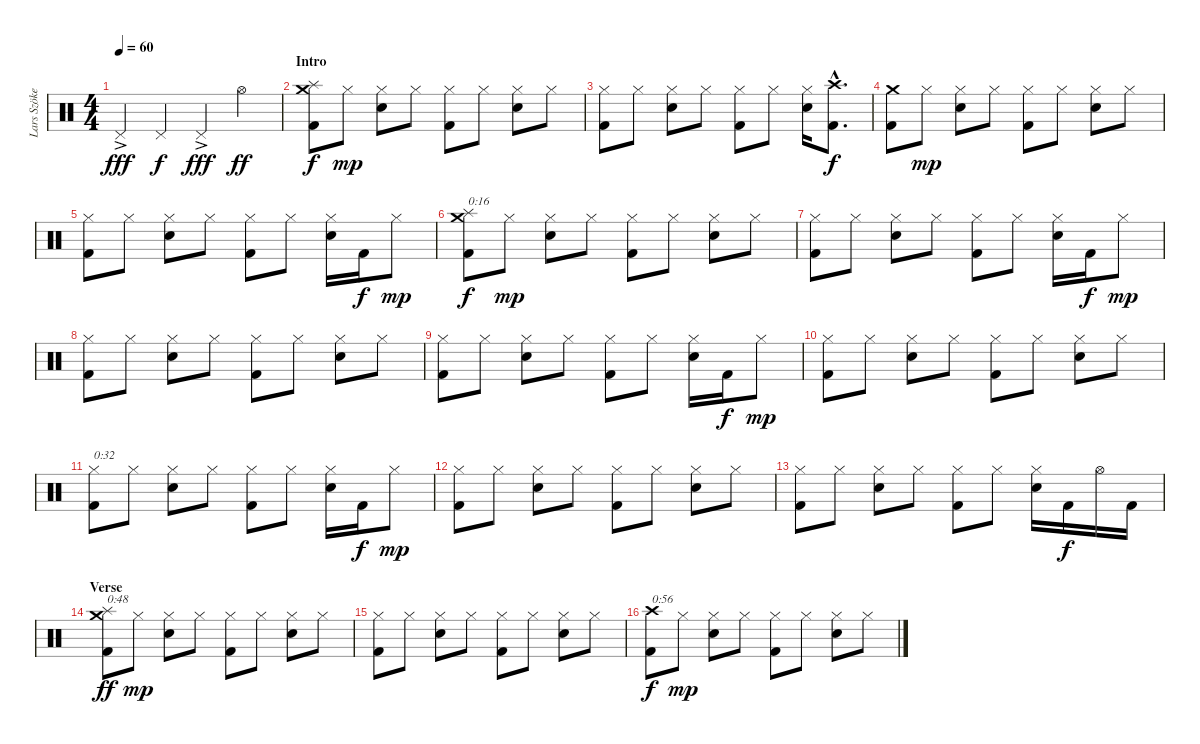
\track ("Lars Szöke (Drums)" "Lars Szöke") {instrument percussion}
\staff {score}
\articulation defaults
\ts (4 4)
\tempo 60
\clef neutral
\ks c "Pedal Hi-Hat (hit)"{ac}.4{dy fff} "Pedal Hi-Hat (hit)".4{dy f} "Pedal Hi-Hat (hit)"{ac}.4{dy fff} "Hi-Hat (open)".4{dy ff}
|
\section ("" "Intro")
("Kick (hit) 2" "Splash (hit)" "Crash medium (hit)").8{dy f} "Hi-Hat (closed)".8{dy mp} ("Snare (hit) 2" "Hi-Hat (closed)").8 "Hi-Hat (closed)".8 ("Kick (hit) 2" "Hi-Hat (closed)").8 "Hi-Hat (closed)".8 ("Snare (hit) 2" "Hi-Hat (closed)").8 "Hi-Hat (closed)".8 |
("Kick (hit) 2" "Hi-Hat (closed)").8 "Hi-Hat (closed)".8 ("Snare (hit) 2" "Hi-Hat (closed)").8 "Hi-Hat (closed)".8 ("Kick (hit) 2" "Hi-Hat (closed)").8 "Hi-Hat (closed)".8 ("Snare (hit) 2" "Hi-Hat (closed)").16 ("Kick (hit) 2"{hac} "Crash high (hit)"{hac}).8{d dy f} |
("Kick (hit) 2" "Crash medium (hit)").8 "Hi-Hat (closed)".8{dy mp} ("Snare (hit) 2" "Hi-Hat (closed)").8 "Hi-Hat (closed)".8 ("Kick (hit) 2" "Hi-Hat (closed)").8 "Hi-Hat (closed)".8 ("Snare (hit) 2" "Hi-Hat (closed)").8 "Hi-Hat (closed)".8 |
("Kick (hit) 2" "Hi-Hat (closed)").8 "Hi-Hat (closed)".8 ("Snare (hit) 2" "Hi-Hat (closed)").8 "Hi-Hat (closed)".8 ("Kick (hit) 2" "Hi-Hat (closed)").8 "Hi-Hat (closed)".8 ("Snare (hit) 2" "Hi-Hat (closed)").16 "Kick (hit) 2".16{dy f} "Hi-Hat (closed)".8{dy mp} |
("Kick (hit) 2" "Splash (hit)" "Crash medium (hit)").8{txt "0:16" dy f} "Hi-Hat (closed)".8{dy mp} ("Snare (hit) 2" "Hi-Hat (closed)").8 "Hi-Hat (closed)".8 ("Kick (hit) 2" "Hi-Hat (closed)").8 "Hi-Hat (closed)".8 ("Snare (hit) 2" "Hi-Hat (closed)").8 "Hi-Hat (closed)".8 |
("Kick (hit) 2" "Hi-Hat (closed)").8 "Hi-Hat (closed)".8 ("Snare (hit) 2" "Hi-Hat (closed)").8 "Hi-Hat (closed)".8 ("Kick (hit) 2" "Hi-Hat (closed)").8 "Hi-Hat (closed)".8 ("Snare (hit) 2" "Hi-Hat (closed)").16 "Kick (hit) 2".16{dy f} "Hi-Hat (closed)".8{dy mp} |
("Kick (hit) 2" "Hi-Hat (closed)").8 "Hi-Hat (closed)".8 ("Snare (hit) 2" "Hi-Hat (closed)").8 "Hi-Hat (closed)".8 ("Kick (hit) 2" "Hi-Hat (closed)").8 "Hi-Hat (closed)".8 ("Snare (hit) 2" "Hi-Hat (closed)").8 "Hi-Hat (closed)".8 |
("Kick (hit) 2" "Hi-Hat (closed)").8 "Hi-Hat (closed)".8 ("Snare (hit) 2" "Hi-Hat (closed)").8 "Hi-Hat (closed)".8 ("Kick (hit) 2" "Hi-Hat (closed)").8 "Hi-Hat (closed)".8 ("Snare (hit) 2" "Hi-Hat (closed)").16 "Kick (hit) 2".16{dy f} "Hi-Hat (closed)".8{dy mp} |
("Kick (hit) 2" "Hi-Hat (closed)").8 "Hi-Hat (closed)".8 ("Snare (hit) 2" "Hi-Hat (closed)").8 "Hi-Hat (closed)".8 ("Kick (hit) 2" "Hi-Hat (closed)").8 "Hi-Hat (closed)".8 ("Snare (hit) 2" "Hi-Hat (closed)").8 "Hi-Hat (closed)".8 |
("Kick (hit) 2" "Hi-Hat (closed)").8{txt "0:32"} "Hi-Hat (closed)".8 ("Snare (hit) 2" "Hi-Hat (closed)").8 "Hi-Hat (closed)".8 ("Kick (hit) 2" "Hi-Hat (closed)").8 "Hi-Hat (closed)".8 ("Snare (hit) 2" "Hi-Hat (closed)").16 "Kick (hit) 2".16{dy f} "Hi-Hat (closed)".8{dy mp} |
("Kick (hit) 2" "Hi-Hat (closed)").8 "Hi-Hat (closed)".8 ("Snare (hit) 2" "Hi-Hat (closed)").8 "Hi-Hat (closed)".8 ("Kick (hit) 2" "Hi-Hat (closed)").8 "Hi-Hat (closed)".8 ("Snare (hit) 2" "Hi-Hat (closed)").8 "Hi-Hat (closed)".8 |
("Kick (hit) 2" "Hi-Hat (closed)").8 "Hi-Hat (closed)".8 ("Snare (hit) 2" "Hi-Hat (closed)").8 "Hi-Hat (closed)".8 ("Kick (hit) 2" "Hi-Hat (closed)").8 "Hi-Hat (closed)".8 ("Snare (hit) 2" "Hi-Hat (closed)").16 "Kick (hit) 2".16{dy f} "Hi-Hat (open)".16 "Kick (hit) 2".16 |
\section ("" "Verse")
("Kick (hit) 2" "Splash (hit)" "Crash medium (hit)").8{txt "0:48" dy ff} "Hi-Hat (closed)".8{dy mp} ("Snare (hit) 2" "Hi-Hat (closed)").8 "Hi-Hat (closed)".8 ("Kick (hit) 2" "Hi-Hat (closed)").8 "Hi-Hat (closed)".8 ("Snare (hit) 2" "Hi-Hat (closed)").8 "Hi-Hat (closed)".8 |
("Kick (hit) 2" "Hi-Hat (closed)").8 "Hi-Hat (closed)".8 ("Snare (hit) 2" "Hi-Hat (closed)").8 "Hi-Hat (closed)".8 ("Kick (hit) 2" "Hi-Hat (closed)").8 "Hi-Hat (closed)".8 ("Snare (hit) 2" "Hi-Hat (closed)").8 "Hi-Hat (closed)".8 |
("Kick (hit) 2" "Crash high (hit)").8{txt "0:56" dy f} "Hi-Hat (closed)".8{dy mp} ("Snare (hit) 2" "Hi-Hat (closed)").8 "Hi-Hat (closed)".8 ("Kick (hit) 2" "Hi-Hat (closed)").8 "Hi-Hat (closed)".8 ("Snare (hit) 2" "Hi-Hat (closed)").8 "Hi-Hat (closed)".8
